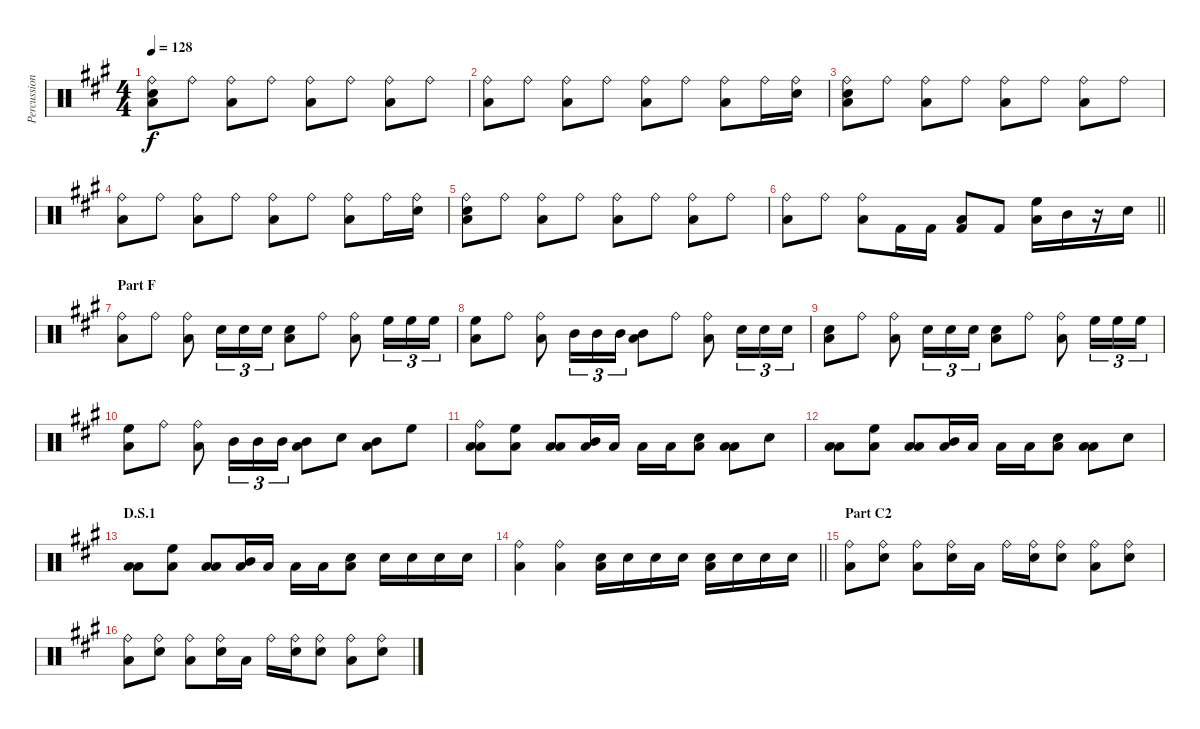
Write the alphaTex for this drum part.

\track ("Percussions" "Percussion") {instrument percussion}
\staff {score}
\articulation defaults
\ts (4 4)
\tempo 128
\clef neutral
\ks a
("Snare (hit) 2" "Ride (bell)" "Low Floor Tom (hit)").8{dy f} "Ride (bell)".8 ("Low Floor Tom (hit)" "Ride (bell)").8 "Ride (bell)".8 ("Ride (bell)" "Low Floor Tom (hit)").8 "Ride (bell)".8 ("Low Floor Tom (hit)" "Ride (bell)").8 "Ride (bell)".8 |
("Ride (bell)" "Low Floor Tom (hit)").8 "Ride (bell)".8 ("Low Floor Tom (hit)" "Ride (bell)").8 "Ride (bell)".8 ("Ride (bell)" "Low Floor Tom (hit)").8 "Ride (bell)".8 ("Low Floor Tom (hit)" "Ride (bell)").8 "Ride (bell)".16 ("Ride (bell)" "Snare (hit) 2").16 |
("Snare (hit) 2" "Ride (bell)" "Low Floor Tom (hit)").8 "Ride (bell)".8 ("Low Floor Tom (hit)" "Ride (bell)").8 "Ride (bell)".8 ("Ride (bell)" "Low Floor Tom (hit)").8 "Ride (bell)".8 ("Low Floor Tom (hit)" "Ride (bell)").8 "Ride (bell)".8 |
("Ride (bell)" "Low Floor Tom (hit)").8 "Ride (bell)".8 ("Low Floor Tom (hit)" "Ride (bell)").8 "Ride (bell)".8 ("Ride (bell)" "Low Floor Tom (hit)").8 "Ride (bell)".8 ("Low Floor Tom (hit)" "Ride (bell)").8 "Ride (bell)".16 ("Ride (bell)" "Snare (hit) 2").16 |
("Snare (hit) 2" "Ride (bell)" "Low Floor Tom (hit)").8 "Ride (bell)".8 ("Low Floor Tom (hit)" "Ride (bell)").8 "Ride (bell)".8 ("Ride (bell)" "Low Floor Tom (hit)").8 "Ride (bell)".8 ("Low Floor Tom (hit)" "Ride (bell)").8 "Ride (bell)".8 |
\barLineRight lightlight
("Ride (bell)" "Low Floor Tom (hit)").8 "Ride (bell)".8 ("Low Floor Tom (hit)" "Ride (bell)").8 "Kick (hit) 2".16 "Kick (hit) 2".16 ("Kick (hit) 2" "Low Floor Tom (hit)").8 "Kick (hit) 2".8 ("High Floor Tom (hit)" "Low Floor Tom (hit)").16 "Mid Tom (hit)".16 r.16 "Snare (hit) 2".16 |
\section ("" "Part F")
("Ride (bell)" "Low Floor Tom (hit)").8 "Ride (bell)".8 ("Ride (bell)" "Low Floor Tom (hit)").8 "Snare (hit) 2".16{tu (3 2)} "Snare (hit) 2".16{tu (3 2)} "Snare (hit) 2".16{tu (3 2)} ("Snare (hit) 2" "Low Floor Tom (hit)").8 "Ride (bell)".8 ("Low Floor Tom (hit)" "Ride (bell)").8 "High Floor Tom (hit)".16{tu (3 2)} "High Floor Tom (hit)".16{tu (3 2)} "High Floor Tom (hit)".16{tu (3 2)} |
("High Floor Tom (hit)" "Low Floor Tom (hit)").8 "Ride (bell)".8 ("Ride (bell)" "Low Floor Tom (hit)").8 "Mid Tom (hit)".16{tu (3 2)} "Mid Tom (hit)".16{tu (3 2)} "Mid Tom (hit)".16{tu (3 2)} ("Mid Tom (hit)" "Low Floor Tom (hit)").8 "Ride (bell)".8 ("Low Floor Tom (hit)" "Ride (bell)").8 "Snare (hit) 2".16{tu (3 2)} "Snare (hit) 2".16{tu (3 2)} "Snare (hit) 2".16{tu (3 2)} |
("Snare (hit) 2" "Low Floor Tom (hit)").8 "Ride (bell)".8 ("Ride (bell)" "Low Floor Tom (hit)").8 "Snare (hit) 2".16{tu (3 2)} "Snare (hit) 2".16{tu (3 2)} "Snare (hit) 2".16{tu (3 2)} ("Low Floor Tom (hit)" "Snare (hit) 2").8 "Ride (bell)".8 ("Ride (bell)" "Low Floor Tom (hit)").8 "High Floor Tom (hit)".16{tu (3 2)} "High Floor Tom (hit)".16{tu (3 2)} "High Floor Tom (hit)".16{tu (3 2)} |
("Low Floor Tom (hit)" "High Floor Tom (hit)").8 "Ride (bell)".8 ("Ride (bell)" "Low Floor Tom (hit)").8 "Mid Tom (hit)".16{tu (3 2)} "Mid Tom (hit)".16{tu (3 2)} "Mid Tom (hit)".16{tu (3 2)} ("Low Floor Tom (hit)" "Mid Tom (hit)").8 "Snare (hit) 2".8 ("Mid Tom (hit)" "Low Floor Tom (hit)").8 "High Floor Tom (hit)".8 |
("Ride (bell)" "Low Tom (hit)" "Low Floor Tom (hit)").8 ("High Floor Tom (hit)" "Low Tom (hit)").8 ("Low Tom (hit)" "Low Floor Tom (hit)").8 ("Mid Tom (hit)" "Low Tom (hit)").16 "Low Floor Tom (hit)".16 "Low Tom (hit)".16 "Low Floor Tom (hit)".16 ("Snare (hit) 2" "Low Tom (hit)").8 ("Low Tom (hit)" "Low Floor Tom (hit)").8 "Snare (hit) 2".8 |
("Low Tom (hit)" "Low Floor Tom (hit)").8 ("High Floor Tom (hit)" "Low Tom (hit)").8 ("Low Tom (hit)" "Low Floor Tom (hit)").8 ("Mid Tom (hit)" "Low Tom (hit)").16 "Low Floor Tom (hit)".16 "Low Tom (hit)".16 "Low Floor Tom (hit)".16 ("Snare (hit) 2" "Low Tom (hit)").8 ("Low Tom (hit)" "Low Floor Tom (hit)").8 "Snare (hit) 2".8 |
\section ("" "D.S.1")
("Low Tom (hit)" "Low Floor Tom (hit)").8 ("High Floor Tom (hit)" "Low Tom (hit)").8 ("Low Tom (hit)" "Low Floor Tom (hit)").8 ("Mid Tom (hit)" "Low Tom (hit)").16 "Low Floor Tom (hit)".16 "Low Tom (hit)".16 "Low Floor Tom (hit)".16 ("Snare (hit) 2" "Low Tom (hit)").8 "Snare (hit) 2".16 "Snare (hit) 2".16 "Snare (hit) 2".16 "Snare (hit) 2".16 |
\barLineRight lightlight
("Ride (bell)" "Low Floor Tom (hit)").4 ("Low Floor Tom (hit)" "Ride (bell)").4 ("Snare (hit) 2" "Low Floor Tom (hit)").16 "Snare (hit) 2".16 "Snare (hit) 2".16 "Snare (hit) 2".16 ("Snare (hit) 2" "Low Floor Tom (hit)").16 "Snare (hit) 2".16 "Snare (hit) 2".16 "Snare (hit) 2".16 |
\section ("" "Part C2")
("Ride (bell)" "Low Floor Tom (hit)").8 ("Ride (bell)" "Snare (hit) 2").8 ("Ride (bell)" "Low Floor Tom (hit)").8 ("Ride (bell)" "Snare (hit) 2").16 "Low Floor Tom (hit)".16 "Ride (bell)".16 ("Ride (bell)" "Snare (hit) 2").16 ("Ride (bell)" "Snare (hit) 2").8 ("Ride (bell)" "Low Floor Tom (hit)").8 ("Ride (bell)" "Snare (hit) 2").8 |
("Ride (bell)" "Low Floor Tom (hit)").8 ("Ride (bell)" "Snare (hit) 2").8 ("Ride (bell)" "Low Floor Tom (hit)").8 ("Ride (bell)" "Snare (hit) 2").16 "Low Floor Tom (hit)".16 "Ride (bell)".16 ("Ride (bell)" "Snare (hit) 2").16 ("Ride (bell)" "Snare (hit) 2").8 ("Ride (bell)" "Low Floor Tom (hit)").8 ("Ride (bell)" "Snare (hit) 2").8
